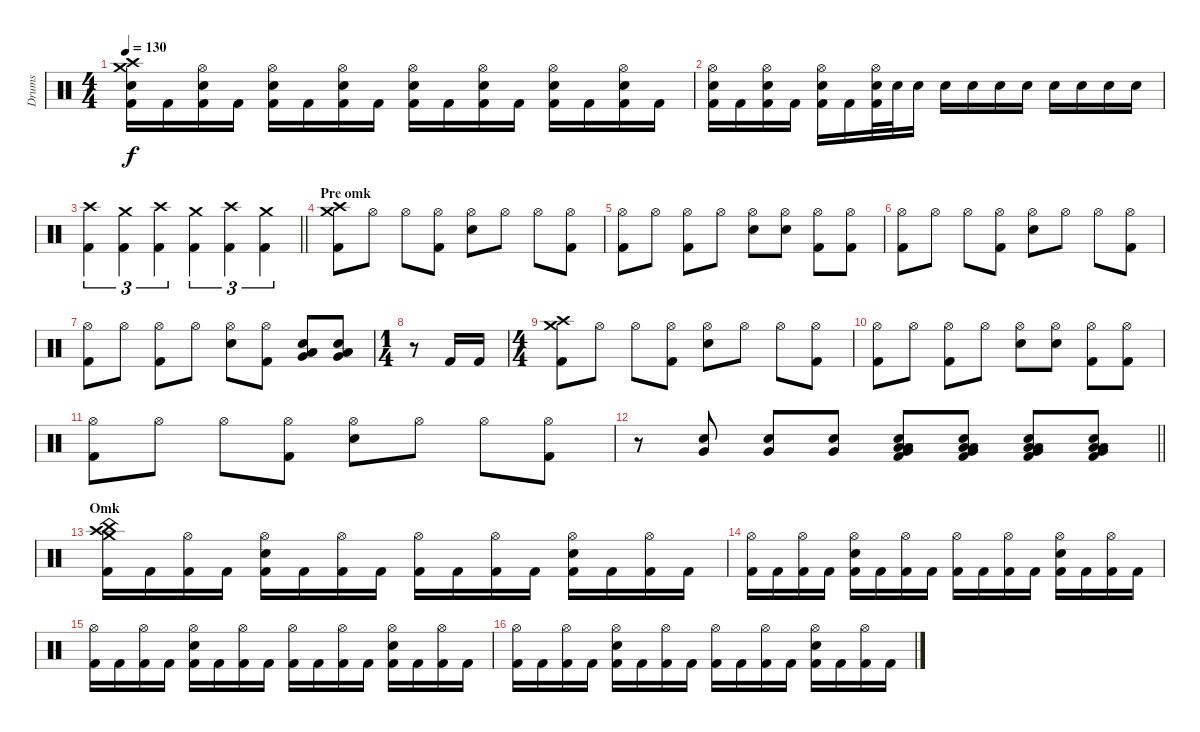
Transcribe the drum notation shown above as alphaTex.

\track ("Drums" "Drums") {instrument percussion}
\staff {score}
\articulation defaults
\ts (4 4)
\tempo 130
\clef neutral
\ks c
("Crash medium (hit)" "Crash high (hit)" "Electric Snare (hit)" "Kick (hit) 2").16{dy f} "Kick (hit) 2".16 ("Hi-Hat (open)" "Electric Snare (hit)" "Kick (hit) 2").16 "Kick (hit) 2".16 ("Hi-Hat (open)" "Electric Snare (hit)" "Kick (hit) 2").16 "Kick (hit) 2".16 ("Hi-Hat (open)" "Electric Snare (hit)" "Kick (hit) 2").16 "Kick (hit) 2".16 ("Hi-Hat (open)" "Electric Snare (hit)" "Kick (hit) 2").16 "Kick (hit) 2".16 ("Hi-Hat (open)" "Electric Snare (hit)" "Kick (hit) 2").16 "Kick (hit) 2".16 ("Hi-Hat (open)" "Electric Snare (hit)" "Kick (hit) 2").16 "Kick (hit) 2".16 ("Hi-Hat (open)" "Electric Snare (hit)" "Kick (hit) 2").16 "Kick (hit) 2".16 |
("Hi-Hat (open)" "Electric Snare (hit)" "Kick (hit) 2").16 "Kick (hit) 2".16 ("Hi-Hat (open)" "Electric Snare (hit)" "Kick (hit) 2").16 "Kick (hit) 2".16 ("Hi-Hat (open)" "Electric Snare (hit)" "Kick (hit) 2").16 "Kick (hit) 2".16 ("Hi-Hat (open)" "Electric Snare (hit)" "Kick (hit) 2").32 "Electric Snare (hit)".32 "Electric Snare (hit)".16 "Electric Snare (hit)".16 "Electric Snare (hit)".16 "Electric Snare (hit)".16 "Electric Snare (hit)".16 "Electric Snare (hit)".16 "Electric Snare (hit)".16 "Electric Snare (hit)".16 "Electric Snare (hit)".16 |
\barLineRight lightlight
("Crash high (hit)" "Kick (hit) 2").4{tu (3 2)} ("Crash medium (hit)" "Kick (hit) 2").4{tu (3 2)} ("Crash high (hit)" "Kick (hit) 2").4{tu (3 2)} ("Crash medium (hit)" "Kick (hit) 2").4{tu (3 2)} ("Crash high (hit)" "Kick (hit) 2").4{tu (3 2)} ("Crash medium (hit)" "Kick (hit) 2").4{tu (3 2)} |
\section ("" "Pre omk")
("Crash medium (hit)" "Crash high (hit)" "Kick (hit) 2").8 "Hi-Hat (open)".8 "Hi-Hat (open)".8 ("Hi-Hat (open)" "Kick (hit) 2").8 ("Hi-Hat (open)" "Snare (hit) 2").8 "Hi-Hat (open)".8 "Hi-Hat (open)".8 ("Hi-Hat (open)" "Kick (hit) 2").8 |
("Hi-Hat (open)" "Kick (hit) 2").8 "Hi-Hat (open)".8 ("Hi-Hat (open)" "Kick (hit) 2").8 "Hi-Hat (open)".8 ("Hi-Hat (open)" "Snare (hit) 2").8 ("Hi-Hat (open)" "Snare (hit) 2").8 ("Hi-Hat (open)" "Kick (hit) 2").8 ("Hi-Hat (open)" "Kick (hit) 2").8 |
("Hi-Hat (open)" "Kick (hit) 2").8 "Hi-Hat (open)".8 "Hi-Hat (open)".8 ("Hi-Hat (open)" "Kick (hit) 2").8 ("Hi-Hat (open)" "Snare (hit) 2").8 "Hi-Hat (open)".8 "Hi-Hat (open)".8 ("Hi-Hat (open)" "Kick (hit) 2").8 |
("Hi-Hat (open)" "Kick (hit) 2").8 "Hi-Hat (open)".8 ("Hi-Hat (open)" "Kick (hit) 2").8 "Hi-Hat (open)".8 ("Hi-Hat (open)" "Snare (hit) 2").8 ("Hi-Hat (open)" "Kick (hit) 2").8 ("Low Tom (hit)" "Very Low Tom (hit)" "Snare (hit) 2").8 ("Low Tom (hit)" "Very Low Tom (hit)" "Snare (hit) 2").8 |
\ts (1 4)
r.8 "Kick (hit) 2".16 "Kick (hit) 2".16 |
\ts (4 4)
("Crash medium (hit)" "Crash high (hit)" "Kick (hit) 2").8 "Hi-Hat (open)".8 "Hi-Hat (open)".8 ("Hi-Hat (open)" "Kick (hit) 2").8 ("Hi-Hat (open)" "Snare (hit) 2").8 "Hi-Hat (open)".8 "Hi-Hat (open)".8 ("Hi-Hat (open)" "Kick (hit) 2").8 |
("Hi-Hat (open)" "Kick (hit) 2").8 "Hi-Hat (open)".8 ("Hi-Hat (open)" "Kick (hit) 2").8 "Hi-Hat (open)".8 ("Hi-Hat (open)" "Snare (hit) 2").8 ("Hi-Hat (open)" "Snare (hit) 2").8 ("Hi-Hat (open)" "Kick (hit) 2").8 ("Hi-Hat (open)" "Kick (hit) 2").8 |
("Hi-Hat (open)" "Kick (hit) 2").8 "Hi-Hat (open)".8 "Hi-Hat (open)".8 ("Hi-Hat (open)" "Kick (hit) 2").8 ("Hi-Hat (open)" "Snare (hit) 2").8 "Hi-Hat (open)".8 "Hi-Hat (open)".8 ("Hi-Hat (open)" "Kick (hit) 2").8 |
\barLineRight lightlight
r.8 ("Very Low Tom (hit)" "Snare (hit) 2").8 ("Very Low Tom (hit)" "Snare (hit) 2").8 ("Very Low Tom (hit)" "Snare (hit) 2").8 ("Low Tom (hit)" "Low Floor Tom (hit)" "Very Low Tom (hit)" "Snare (hit) 2" "Kick (hit) 2").8 ("Low Tom (hit)" "Low Floor Tom (hit)" "Very Low Tom (hit)" "Snare (hit) 2" "Kick (hit) 2").8 ("Low Tom (hit)" "Low Floor Tom (hit)" "Very Low Tom (hit)" "Snare (hit) 2" "Kick (hit) 2").8 ("Low Tom (hit)" "Low Floor Tom (hit)" "Very Low Tom (hit)" "Snare (hit) 2" "Kick (hit) 2").8 |
\section ("" "Omk")
("Crash medium (hit)" "Crash high (hit)" "China (hit)" "Kick (hit) 2").16 "Kick (hit) 2".16 ("Hi-Hat (open)" "Kick (hit) 2").16 "Kick (hit) 2".16 ("Hi-Hat (open)" "Electric Snare (hit)" "Kick (hit) 2").16 "Kick (hit) 2".16 ("Hi-Hat (open)" "Kick (hit) 2").16 "Kick (hit) 2".16 ("Hi-Hat (open)" "Kick (hit) 2").16 "Kick (hit) 2".16 ("Hi-Hat (open)" "Kick (hit) 2").16 "Kick (hit) 2".16 ("Hi-Hat (open)" "Electric Snare (hit)" "Kick (hit) 2").16 "Kick (hit) 2".16 ("Hi-Hat (open)" "Kick (hit) 2").16 "Kick (hit) 2".16 |
("Hi-Hat (open)" "Kick (hit) 2").16 "Kick (hit) 2".16 ("Hi-Hat (open)" "Kick (hit) 2").16 "Kick (hit) 2".16 ("Hi-Hat (open)" "Electric Snare (hit)" "Kick (hit) 2").16 "Kick (hit) 2".16 ("Hi-Hat (open)" "Kick (hit) 2").16 "Kick (hit) 2".16 ("Hi-Hat (open)" "Kick (hit) 2").16 "Kick (hit) 2".16 ("Hi-Hat (open)" "Kick (hit) 2").16 "Kick (hit) 2".16 ("Hi-Hat (open)" "Electric Snare (hit)" "Kick (hit) 2").16 "Kick (hit) 2".16 ("Hi-Hat (open)" "Kick (hit) 2").16 "Kick (hit) 2".16 |
("Hi-Hat (open)" "Kick (hit) 2").16 "Kick (hit) 2".16 ("Hi-Hat (open)" "Kick (hit) 2").16 "Kick (hit) 2".16 ("Hi-Hat (open)" "Electric Snare (hit)" "Kick (hit) 2").16 "Kick (hit) 2".16 ("Hi-Hat (open)" "Kick (hit) 2").16 "Kick (hit) 2".16 ("Hi-Hat (open)" "Kick (hit) 2").16 "Kick (hit) 2".16 ("Hi-Hat (open)" "Kick (hit) 2").16 "Kick (hit) 2".16 ("Hi-Hat (open)" "Electric Snare (hit)" "Kick (hit) 2").16 "Kick (hit) 2".16 ("Hi-Hat (open)" "Kick (hit) 2").16 "Kick (hit) 2".16 |
("Hi-Hat (open)" "Kick (hit) 2").16 "Kick (hit) 2".16 ("Hi-Hat (open)" "Kick (hit) 2").16 "Kick (hit) 2".16 ("Hi-Hat (open)" "Electric Snare (hit)" "Kick (hit) 2").16 "Kick (hit) 2".16 ("Hi-Hat (open)" "Kick (hit) 2").16 "Kick (hit) 2".16 ("Hi-Hat (open)" "Kick (hit) 2").16 "Kick (hit) 2".16 ("Hi-Hat (open)" "Kick (hit) 2").16 "Kick (hit) 2".16 ("Hi-Hat (open)" "Electric Snare (hit)" "Kick (hit) 2").16 "Kick (hit) 2".16 ("Hi-Hat (open)" "Kick (hit) 2").16 "Kick (hit) 2".16
